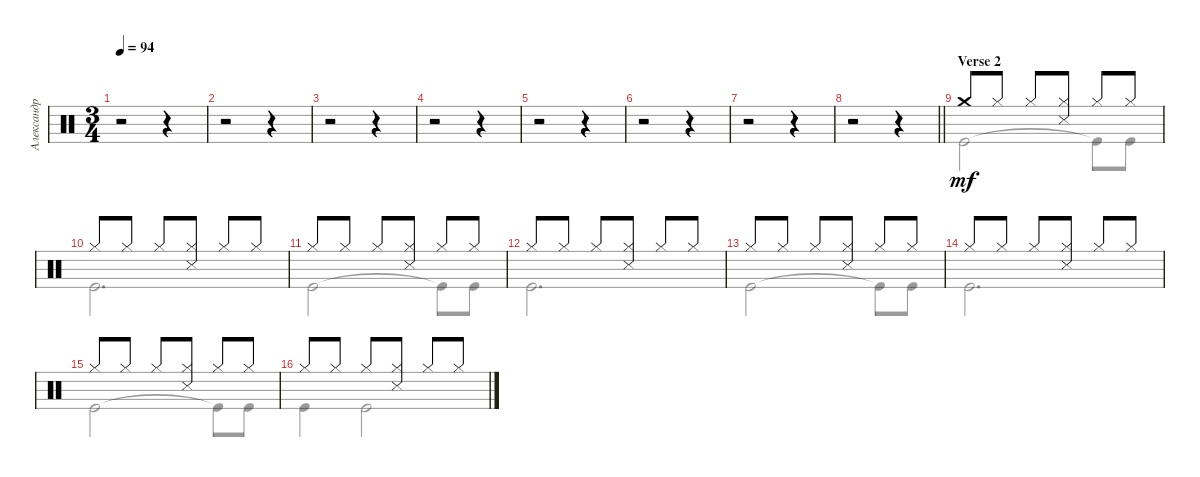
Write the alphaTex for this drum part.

\track ("Александр Манякин" "Александр ") {instrument percussion}
\staff {score}
\articulation defaults
\voice
\ts (3 4)
\tempo 94
\clef neutral
\ks c
r.2{dy mf} r.4 |
r.2 r.4 |
r.2 r.4 |
r.2 r.4 |
r.2 r.4 |
r.2 r.4 |
r.2 r.4 |
\barLineRight lightlight
r.2 r.4 |
\section ("" "Verse 2")
"Crash medium (hit)".8 "Hi-Hat (closed)".8 "Hi-Hat (closed)".8 ("Hi-Hat (closed)" "Snare (side stick) 3").8 "Hi-Hat (closed)".8 "Hi-Hat (closed)".8 |
"Hi-Hat (closed)".8 "Hi-Hat (closed)".8 "Hi-Hat (closed)".8 ("Hi-Hat (closed)" "Snare (side stick) 3").8 "Hi-Hat (closed)".8 "Hi-Hat (closed)".8 |
"Hi-Hat (closed)".8 "Hi-Hat (closed)".8 "Hi-Hat (closed)".8 ("Hi-Hat (closed)" "Snare (side stick) 3").8 "Hi-Hat (closed)".8 "Hi-Hat (closed)".8 |
"Hi-Hat (closed)".8 "Hi-Hat (closed)".8 "Hi-Hat (closed)".8 ("Hi-Hat (closed)" "Snare (side stick) 3").8 "Hi-Hat (closed)".8 "Hi-Hat (closed)".8 |
"Hi-Hat (closed)".8 "Hi-Hat (closed)".8 "Hi-Hat (closed)".8 ("Hi-Hat (closed)" "Snare (side stick) 3").8 "Hi-Hat (closed)".8 "Hi-Hat (closed)".8 |
"Hi-Hat (closed)".8 "Hi-Hat (closed)".8 "Hi-Hat (closed)".8 ("Hi-Hat (closed)" "Snare (side stick) 3").8 "Hi-Hat (closed)".8 "Hi-Hat (closed)".8 |
"Hi-Hat (closed)".8 "Hi-Hat (closed)".8 "Hi-Hat (closed)".8 ("Hi-Hat (closed)" "Snare (side stick) 3").8 "Hi-Hat (closed)".8 "Hi-Hat (closed)".8 |
"Hi-Hat (closed)".8 "Hi-Hat (closed)".8 "Hi-Hat (closed)".8 ("Hi-Hat (closed)" "Snare (side stick) 3").8 "Hi-Hat (closed)".8 "Hi-Hat (closed)".8
\voice
\clef neutral
\ottava regular
\simile none
\ks c
|
|
|
|
|
|
|
\barLineRight lightlight
|
"Kick (hit)".2 "Kick (hit)"{t}.8 "Kick (hit)".8 |
"Kick (hit)".2{d} |
"Kick (hit)".2 "Kick (hit)"{t}.8 "Kick (hit)".8 |
"Kick (hit)".2{d} |
"Kick (hit)".2 "Kick (hit)"{t}.8 "Kick (hit)".8 |
"Kick (hit)".2{d} |
"Kick (hit)".2 "Kick (hit)"{t}.8 "Kick (hit)".8 |
"Kick (hit)".4 "Kick (hit)".2
